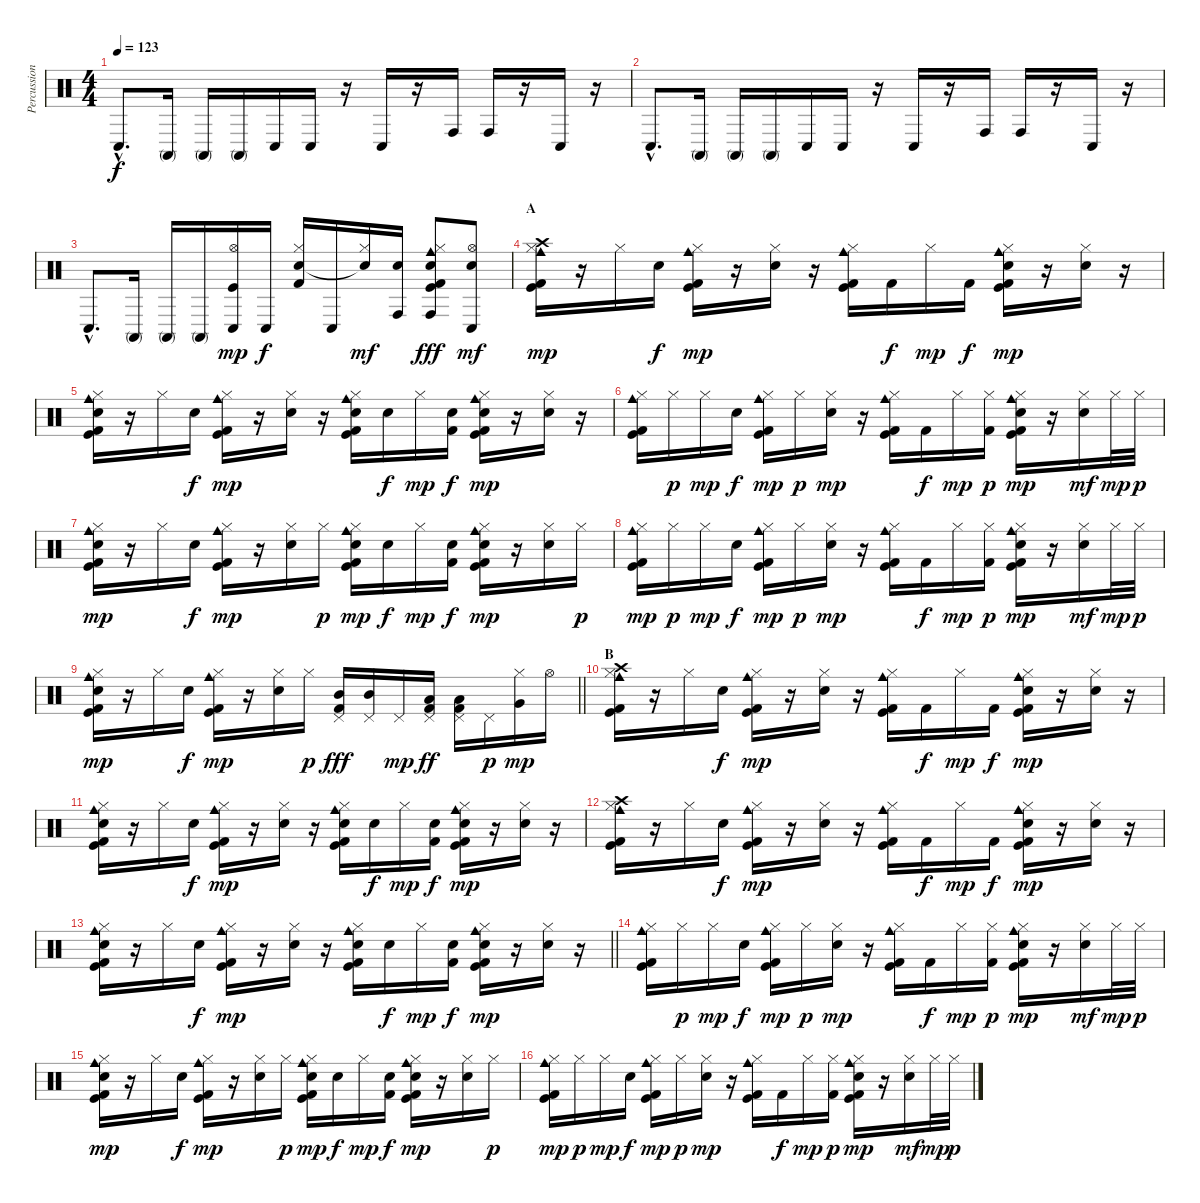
\track ("Percussion" "Percussion") {instrument percussion}
\staff {score}
\articulation defaults
\ts (4 4)
\tempo 123
\clef neutral
\ks c "Conga low (hit)"{hac}.8{d dy f} "Conga high (mute)".16 "Conga high (mute)".16 "Conga high (mute)".16 "Conga low (hit)".16 "Conga low (hit)".16
r.16 "Conga low (hit)".16 r.16 "Conga high (hit)".16 "Conga high (hit)".16 r.16 "Conga low (hit)".16 r.16 |
"Conga low (hit)"{hac}.8{d} "Conga high (mute)".16 "Conga high (mute)".16 "Conga high (mute)".16 "Conga low (hit)".16 "Conga low (hit)".16 r.16 "Conga low (hit)".16 r.16 "Conga high (hit)".16 "Conga high (hit)".16 r.16 "Conga low (hit)".16 r.16 |
"Conga low (hit)"{hac}.8{d} "Conga high (mute)".16 "Conga high (mute)".16 "Conga high (mute)".16 ("Hi-Hat (open)" "Conga low (hit)" "Kick (hit)").16{dy mp} "Conga low (hit)".16{dy f} ("Hi-Hat (closed)" "Electric Snare (hit)" "Kick (hit) 2").16 "Conga low (hit)".16 ("Hi-Hat (closed)" "Snare (hit)"{t}).16{dy mf} ("Conga high (hit)" "Electric Snare (hit)").16 ("Hi-Hat (closed)" "Cowbell medium (hit)" "Kick (hit)" "Conga high (hit)" "Snare (hit)" "Kick (hit) 2").8{dy fff} ("Hi-Hat (open)" "Conga low (hit)" "Electric Snare (hit)").8{dy mf} |
\section ("" "A")
("Hi-Hat (closed)" "Cowbell medium (hit)" "Kick (hit)" "Crash high (hit)" "Kick (hit) 2").16{dy mp} r.16 "Hi-Hat (closed)".16 "Electric Snare (hit)".16{dy f} ("Hi-Hat (closed)" "Cowbell medium (hit)" "Kick (hit)" "Kick (hit) 2").16{dy mp} r.16 ("Hi-Hat (closed)" "Electric Snare (hit)").16 r.16 ("Hi-Hat (closed)" "Cowbell medium (hit)" "Kick (hit)" "Kick (hit) 2").16 "Kick (hit) 2".16{dy f} "Hi-Hat (closed)".16{dy mp} "Kick (hit) 2".16{dy f} ("Hi-Hat (closed)" "Cowbell medium (hit)" "Kick (hit)" "Electric Snare (hit)" "Kick (hit) 2").16{dy mp} r.16 ("Hi-Hat (closed)" "Electric Snare (hit)").16 r.16 |
("Hi-Hat (closed)" "Cowbell medium (hit)" "Kick (hit)" "Electric Snare (hit)" "Kick (hit) 2").16 r.16 "Hi-Hat (closed)".16 "Electric Snare (hit)".16{dy f} ("Hi-Hat (closed)" "Cowbell medium (hit)" "Kick (hit)" "Kick (hit) 2").16{dy mp} r.16 ("Hi-Hat (closed)" "Electric Snare (hit)").16 r.16 ("Hi-Hat (closed)" "Cowbell medium (hit)" "Kick (hit)" "Electric Snare (hit)" "Kick (hit) 2").16 "Electric Snare (hit)".16{dy f} "Hi-Hat (closed)".16{dy mp} ("Electric Snare (hit)" "Kick (hit) 2").16{dy f} ("Hi-Hat (closed)" "Cowbell medium (hit)" "Kick (hit)" "Electric Snare (hit)" "Kick (hit) 2").16{dy mp} r.16 ("Hi-Hat (closed)" "Electric Snare (hit)").16 r.16 |
("Hi-Hat (closed)" "Cowbell medium (hit)" "Kick (hit)" "Kick (hit) 2").16 "Hi-Hat (closed)".16{dy p} "Hi-Hat (closed)".16{dy mp} "Electric Snare (hit)".16{dy f} ("Hi-Hat (closed)" "Cowbell medium (hit)" "Kick (hit)" "Kick (hit) 2").16{dy mp} "Hi-Hat (closed)".16{dy p} ("Hi-Hat (closed)" "Electric Snare (hit)").16{dy mp} r.16 ("Hi-Hat (closed)" "Cowbell medium (hit)" "Kick (hit)" "Kick (hit) 2").16 "Kick (hit) 2".16{dy f} "Hi-Hat (closed)".16{dy mp} ("Hi-Hat (closed)" "Kick (hit) 2").16{dy p} ("Hi-Hat (closed)" "Cowbell medium (hit)" "Kick (hit)" "Electric Snare (hit)" "Kick (hit) 2").16{dy mp} r.16 ("Hi-Hat (closed)" "Electric Snare (hit)").16{dy mf} "Hi-Hat (closed)".32{dy mp} "Hi-Hat (closed)".32{dy p} |
("Hi-Hat (closed)" "Cowbell medium (hit)" "Kick (hit)" "Electric Snare (hit)" "Kick (hit) 2").16{dy mp} r.16 "Hi-Hat (closed)".16 "Electric Snare (hit)".16{dy f} ("Hi-Hat (closed)" "Cowbell medium (hit)" "Kick (hit)" "Kick (hit) 2").16{dy mp} r.16 ("Hi-Hat (closed)" "Electric Snare (hit)").16 "Hi-Hat (closed)".16{dy p} ("Hi-Hat (closed)" "Cowbell medium (hit)" "Kick (hit)" "Electric Snare (hit)" "Kick (hit) 2").16{dy mp} "Electric Snare (hit)".16{dy f} "Hi-Hat (closed)".16{dy mp} ("Electric Snare (hit)" "Kick (hit) 2").16{dy f} ("Hi-Hat (closed)" "Cowbell medium (hit)" "Kick (hit)" "Electric Snare (hit)" "Kick (hit) 2").16{dy mp} r.16 ("Hi-Hat (closed)" "Electric Snare (hit)").16 "Hi-Hat (closed)".16{dy p} |
("Hi-Hat (closed)" "Cowbell medium (hit)" "Kick (hit)" "Kick (hit) 2").16{dy mp} "Hi-Hat (closed)".16{dy p} "Hi-Hat (closed)".16{dy mp} "Electric Snare (hit)".16{dy f} ("Hi-Hat (closed)" "Cowbell medium (hit)" "Kick (hit)" "Kick (hit) 2").16{dy mp} "Hi-Hat (closed)".16{dy p} ("Hi-Hat (closed)" "Electric Snare (hit)").16{dy mp} r.16 ("Hi-Hat (closed)" "Cowbell medium (hit)" "Kick (hit)" "Kick (hit) 2").16 "Kick (hit) 2".16{dy f} "Hi-Hat (closed)".16{dy mp} ("Hi-Hat (closed)" "Kick (hit) 2").16{dy p} ("Hi-Hat (closed)" "Cowbell medium (hit)" "Kick (hit)" "Electric Snare (hit)" "Kick (hit) 2").16{dy mp} r.16 ("Hi-Hat (closed)" "Electric Snare (hit)").16{dy mf} "Hi-Hat (closed)".32{dy mp} "Hi-Hat (closed)".32{dy p} |
\barLineRight lightlight
("Hi-Hat (closed)" "Cowbell medium (hit)" "Kick (hit)" "Electric Snare (hit)" "Kick (hit) 2").16{dy mp} r.16 "Hi-Hat (closed)".16 "Electric Snare (hit)".16{dy f} ("Hi-Hat (closed)" "Cowbell medium (hit)" "Kick (hit)" "Kick (hit) 2").16{dy mp} r.16 ("Hi-Hat (closed)" "Electric Snare (hit)").16 "Hi-Hat (closed)".16{dy p} ("Pedal Hi-Hat (hit)" "Mid Tom (hit)" "Kick (hit) 2").16{dy fff} ("Pedal Hi-Hat (hit)" "Mid Tom (hit)").16 "Pedal Hi-Hat (hit)".16{dy mp} ("Pedal Hi-Hat (hit)" "Low Tom (hit)" "Kick (hit) 2").16{dy ff} ("Pedal Hi-Hat (hit)" "Low Tom (hit)" "Kick (hit) 2").16 "Pedal Hi-Hat (hit)".16{dy p} ("Hi-Hat (closed)" "Very Low Tom (hit)").16{dy mp} "Hi-Hat (open)".16 |
\section ("" "B")
("Hi-Hat (closed)" "Cowbell medium (hit)" "Kick (hit)" "Crash high (hit)" "Kick (hit) 2").16 r.16 "Hi-Hat (closed)".16 "Electric Snare (hit)".16{dy f} ("Hi-Hat (closed)" "Cowbell medium (hit)" "Kick (hit)" "Kick (hit) 2").16{dy mp} r.16 ("Hi-Hat (closed)" "Electric Snare (hit)").16 r.16 ("Hi-Hat (closed)" "Cowbell medium (hit)" "Kick (hit)" "Kick (hit) 2").16 "Kick (hit) 2".16{dy f} "Hi-Hat (closed)".16{dy mp} "Kick (hit) 2".16{dy f} ("Hi-Hat (closed)" "Cowbell medium (hit)" "Kick (hit)" "Electric Snare (hit)" "Kick (hit) 2").16{dy mp} r.16 ("Hi-Hat (closed)" "Electric Snare (hit)").16 r.16 |
("Hi-Hat (closed)" "Cowbell medium (hit)" "Kick (hit)" "Electric Snare (hit)" "Kick (hit) 2").16 r.16 "Hi-Hat (closed)".16 "Electric Snare (hit)".16{dy f} ("Hi-Hat (closed)" "Cowbell medium (hit)" "Kick (hit)" "Kick (hit) 2").16{dy mp} r.16 ("Hi-Hat (closed)" "Electric Snare (hit)").16 r.16 ("Hi-Hat (closed)" "Cowbell medium (hit)" "Kick (hit)" "Electric Snare (hit)" "Kick (hit) 2").16 "Electric Snare (hit)".16{dy f} "Hi-Hat (closed)".16{dy mp} ("Electric Snare (hit)" "Kick (hit) 2").16{dy f} ("Hi-Hat (closed)" "Cowbell medium (hit)" "Kick (hit)" "Electric Snare (hit)" "Kick (hit) 2").16{dy mp} r.16 ("Hi-Hat (closed)" "Electric Snare (hit)").16 r.16 |
("Hi-Hat (closed)" "Cowbell medium (hit)" "Kick (hit)" "Crash high (hit)" "Kick (hit) 2").16 r.16 "Hi-Hat (closed)".16 "Electric Snare (hit)".16{dy f} ("Hi-Hat (closed)" "Cowbell medium (hit)" "Kick (hit)" "Kick (hit) 2").16{dy mp} r.16 ("Hi-Hat (closed)" "Electric Snare (hit)").16 r.16 ("Hi-Hat (closed)" "Cowbell medium (hit)" "Kick (hit)" "Kick (hit) 2").16 "Kick (hit) 2".16{dy f} "Hi-Hat (closed)".16{dy mp} "Kick (hit) 2".16{dy f} ("Hi-Hat (closed)" "Cowbell medium (hit)" "Kick (hit)" "Electric Snare (hit)" "Kick (hit) 2").16{dy mp} r.16 ("Hi-Hat (closed)" "Electric Snare (hit)").16 r.16 |
\barLineRight lightlight
("Hi-Hat (closed)" "Cowbell medium (hit)" "Kick (hit)" "Electric Snare (hit)" "Kick (hit) 2").16 r.16 "Hi-Hat (closed)".16 "Electric Snare (hit)".16{dy f} ("Hi-Hat (closed)" "Cowbell medium (hit)" "Kick (hit)" "Kick (hit) 2").16{dy mp} r.16 ("Hi-Hat (closed)" "Electric Snare (hit)").16 r.16 ("Hi-Hat (closed)" "Cowbell medium (hit)" "Kick (hit)" "Electric Snare (hit)" "Kick (hit) 2").16 "Electric Snare (hit)".16{dy f} "Hi-Hat (closed)".16{dy mp} ("Electric Snare (hit)" "Kick (hit) 2").16{dy f} ("Hi-Hat (closed)" "Cowbell medium (hit)" "Kick (hit)" "Electric Snare (hit)" "Kick (hit) 2").16{dy mp} r.16 ("Hi-Hat (closed)" "Electric Snare (hit)").16 r.16 |
("Hi-Hat (closed)" "Cowbell medium (hit)" "Kick (hit)" "Kick (hit) 2").16 "Hi-Hat (closed)".16{dy p} "Hi-Hat (closed)".16{dy mp} "Electric Snare (hit)".16{dy f} ("Hi-Hat (closed)" "Cowbell medium (hit)" "Kick (hit)" "Kick (hit) 2").16{dy mp} "Hi-Hat (closed)".16{dy p} ("Hi-Hat (closed)" "Electric Snare (hit)").16{dy mp} r.16 ("Hi-Hat (closed)" "Cowbell medium (hit)" "Kick (hit)" "Kick (hit) 2").16 "Kick (hit) 2".16{dy f} "Hi-Hat (closed)".16{dy mp} ("Hi-Hat (closed)" "Kick (hit) 2").16{dy p} ("Hi-Hat (closed)" "Cowbell medium (hit)" "Kick (hit)" "Electric Snare (hit)" "Kick (hit) 2").16{dy mp} r.16 ("Hi-Hat (closed)" "Electric Snare (hit)").16{dy mf} "Hi-Hat (closed)".32{dy mp} "Hi-Hat (closed)".32{dy p} |
("Hi-Hat (closed)" "Cowbell medium (hit)" "Kick (hit)" "Electric Snare (hit)" "Kick (hit) 2").16{dy mp} r.16 "Hi-Hat (closed)".16 "Electric Snare (hit)".16{dy f} ("Hi-Hat (closed)" "Cowbell medium (hit)" "Kick (hit)" "Kick (hit) 2").16{dy mp} r.16 ("Hi-Hat (closed)" "Electric Snare (hit)").16 "Hi-Hat (closed)".16{dy p} ("Hi-Hat (closed)" "Cowbell medium (hit)" "Kick (hit)" "Electric Snare (hit)" "Kick (hit) 2").16{dy mp} "Electric Snare (hit)".16{dy f} "Hi-Hat (closed)".16{dy mp} ("Electric Snare (hit)" "Kick (hit) 2").16{dy f} ("Hi-Hat (closed)" "Cowbell medium (hit)" "Kick (hit)" "Electric Snare (hit)" "Kick (hit) 2").16{dy mp} r.16 ("Hi-Hat (closed)" "Electric Snare (hit)").16 "Hi-Hat (closed)".16{dy p} |
("Hi-Hat (closed)" "Cowbell medium (hit)" "Kick (hit)" "Kick (hit) 2").16{dy mp} "Hi-Hat (closed)".16{dy p} "Hi-Hat (closed)".16{dy mp} "Electric Snare (hit)".16{dy f} ("Hi-Hat (closed)" "Cowbell medium (hit)" "Kick (hit)" "Kick (hit) 2").16{dy mp} "Hi-Hat (closed)".16{dy p} ("Hi-Hat (closed)" "Electric Snare (hit)").16{dy mp} r.16 ("Hi-Hat (closed)" "Cowbell medium (hit)" "Kick (hit)" "Kick (hit) 2").16 "Kick (hit) 2".16{dy f} "Hi-Hat (closed)".16{dy mp} ("Hi-Hat (closed)" "Kick (hit) 2").16{dy p} ("Hi-Hat (closed)" "Cowbell medium (hit)" "Kick (hit)" "Electric Snare (hit)" "Kick (hit) 2").16{dy mp} r.16 ("Hi-Hat (closed)" "Electric Snare (hit)").16{dy mf} "Hi-Hat (closed)".32{dy mp} "Hi-Hat (closed)".32{dy p}
